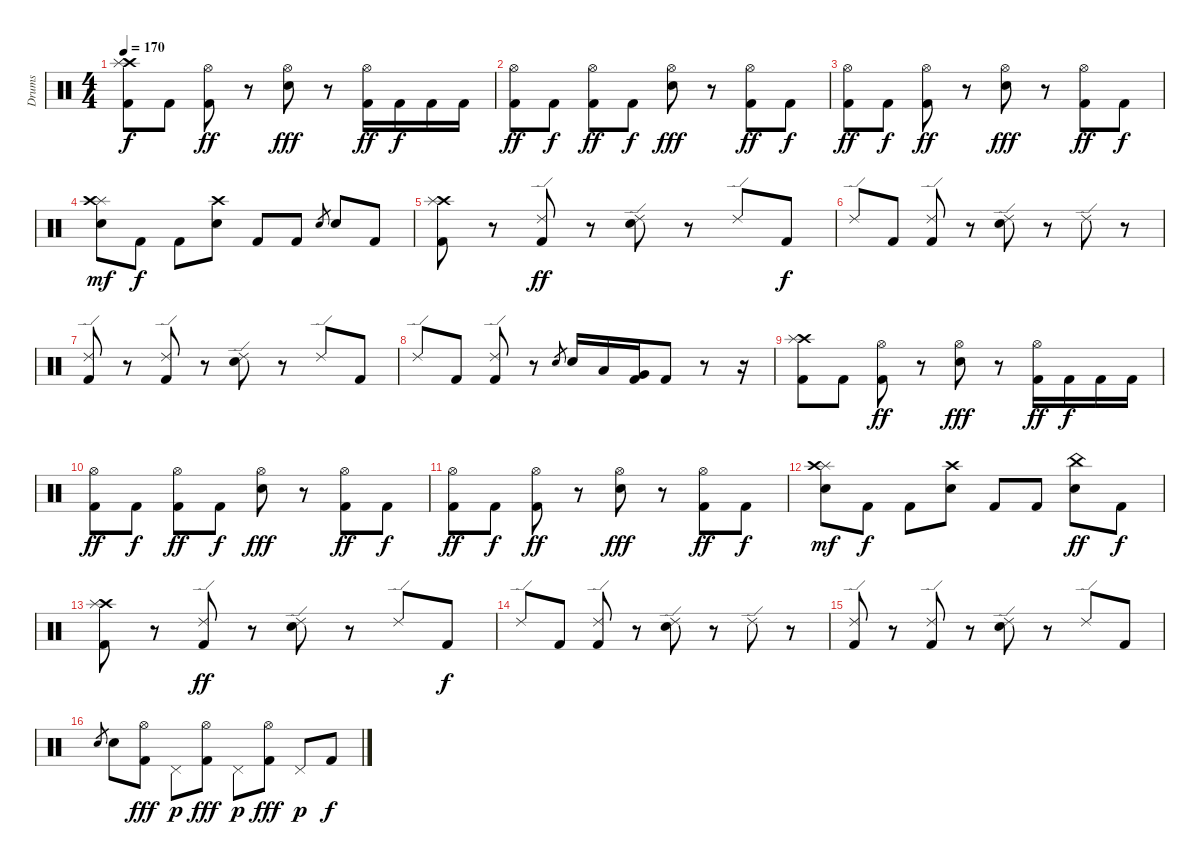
\track ("Drums" "Drums") {instrument percussion}
\staff {score}
\articulation defaults
\ts (4 4)
\tempo 170
\clef neutral
\ks c
("Crash high (hit)" "Splash (hit)" "Kick (hit) 2").8{dy f} "Kick (hit) 2".8 ("Hi-Hat (open)" "Kick (hit) 2").8{dy ff} r.8 ("Hi-Hat (open)" "Electric Snare (hit)").8{dy fff} r.8 ("Hi-Hat (open)" "Kick (hit) 2").16{dy ff} "Kick (hit) 2".16{dy f} "Kick (hit) 2".16 "Kick (hit) 2".16 |
("Hi-Hat (open)" "Kick (hit) 2").8{dy ff} "Kick (hit) 2".8{dy f} ("Hi-Hat (open)" "Kick (hit) 2").8{dy ff} "Kick (hit) 2".8{dy f} ("Hi-Hat (open)" "Electric Snare (hit)").8{dy fff} r.8 ("Hi-Hat (open)" "Kick (hit) 2").8{dy ff} "Kick (hit) 2".8{dy f} |
("Hi-Hat (open)" "Kick (hit) 2").8{dy ff} "Kick (hit) 2".8{dy f} ("Hi-Hat (open)" "Kick (hit) 2").8{dy ff} r.8 ("Hi-Hat (open)" "Electric Snare (hit)").8{dy fff} r.8 ("Hi-Hat (open)" "Kick (hit) 2").8{dy ff} "Kick (hit) 2".8{dy f} |
("Splash (hit)" "Crash high (hit)" "Electric Snare (hit)").8{dy mf} "Kick (hit) 2".8{dy f} "Kick (hit) 2".8 ("Crash high (hit)" "Electric Snare (hit)").8 "Kick (hit) 2".8 "Kick (hit) 2".8 "Electric Snare (hit)".8{gr} "Electric Snare (hit)".8 "Kick (hit) 2".8 |
("Crash high (hit)" "Splash (hit)" "Kick (hit) 2").8 r.8 ("Ride (edge) 2" "Kick (hit) 2").8{dy ff} r.8 ("Ride (edge) 2" "Electric Snare (hit)").8 r.8 "Ride (edge) 2".8 "Kick (hit) 2".8{dy f} |
"Ride (edge) 2".8 "Kick (hit) 2".8 ("Ride (edge) 2" "Kick (hit) 2").8 r.8 ("Ride (edge) 2" "Electric Snare (hit)").8 r.8 "Ride (edge) 2".8 r.8 |
("Ride (edge) 2" "Kick (hit) 2").8 r.8 ("Ride (edge) 2" "Kick (hit) 2").8 r.8 ("Ride (edge) 2" "Electric Snare (hit)").8 r.8 "Ride (edge) 2".8 "Kick (hit) 2".8 |
"Ride (edge) 2".8 "Kick (hit) 2".8 ("Ride (edge) 2" "Kick (hit) 2").8 r.8 "Electric Snare (hit)".8{gr} "Electric Snare (hit)".16 "Low Tom (hit)".16 ("Very Low Tom (hit)" "Kick (hit) 2").16 "Kick (hit) 2".8 r.8 r.16 |
("Crash high (hit)" "Splash (hit)" "Kick (hit) 2").8 "Kick (hit) 2".8 ("Hi-Hat (open)" "Kick (hit) 2").8{dy ff} r.8 ("Hi-Hat (open)" "Electric Snare (hit)").8{dy fff} r.8 ("Hi-Hat (open)" "Kick (hit) 2").16{dy ff} "Kick (hit) 2".16{dy f} "Kick (hit) 2".16 "Kick (hit) 2".16 |
("Hi-Hat (open)" "Kick (hit) 2").8{dy ff} "Kick (hit) 2".8{dy f} ("Hi-Hat (open)" "Kick (hit) 2").8{dy ff} "Kick (hit) 2".8{dy f} ("Hi-Hat (open)" "Electric Snare (hit)").8{dy fff} r.8 ("Hi-Hat (open)" "Kick (hit) 2").8{dy ff} "Kick (hit) 2".8{dy f} |
("Hi-Hat (open)" "Kick (hit) 2").8{dy ff} "Kick (hit) 2".8{dy f} ("Hi-Hat (open)" "Kick (hit) 2").8{dy ff} r.8 ("Hi-Hat (open)" "Electric Snare (hit)").8{dy fff} r.8 ("Hi-Hat (open)" "Kick (hit) 2").8{dy ff} "Kick (hit) 2".8{dy f} |
("Splash (hit)" "Crash high (hit)" "Electric Snare (hit)").8{dy mf} "Kick (hit) 2".8{dy f} "Kick (hit) 2".8 ("Crash high (hit)" "Electric Snare (hit)").8 "Kick (hit) 2".8 "Kick (hit) 2".8 ("China (hit)" "Electric Snare (hit)").8{dy ff} "Kick (hit) 2".8{dy f} |
("Crash high (hit)" "Splash (hit)" "Kick (hit) 2").8 r.8 ("Ride (edge) 2" "Kick (hit) 2").8{dy ff} r.8 ("Ride (edge) 2" "Electric Snare (hit)").8 r.8 "Ride (edge) 2".8 "Kick (hit) 2".8{dy f} |
"Ride (edge) 2".8 "Kick (hit) 2".8 ("Ride (edge) 2" "Kick (hit) 2").8 r.8 ("Ride (edge) 2" "Electric Snare (hit)").8 r.8 "Ride (edge) 2".8 r.8 |
("Ride (edge) 2" "Kick (hit) 2").8 r.8 ("Ride (edge) 2" "Kick (hit) 2").8 r.8 ("Ride (edge) 2" "Electric Snare (hit)").8 r.8 "Ride (edge) 2".8 "Kick (hit) 2".8 |
"Electric Snare (hit)".8{gr} "Electric Snare (hit)".8 ("Hi-Hat (open)" "Kick (hit) 2").8{dy fff} "Pedal Hi-Hat (hit)".8{dy p} ("Hi-Hat (open)" "Kick (hit) 2").8{dy fff} "Pedal Hi-Hat (hit)".8{dy p} ("Hi-Hat (open)" "Kick (hit) 2").8{dy fff} "Pedal Hi-Hat (hit)".8{dy p} "Kick (hit) 2".8{dy f}
